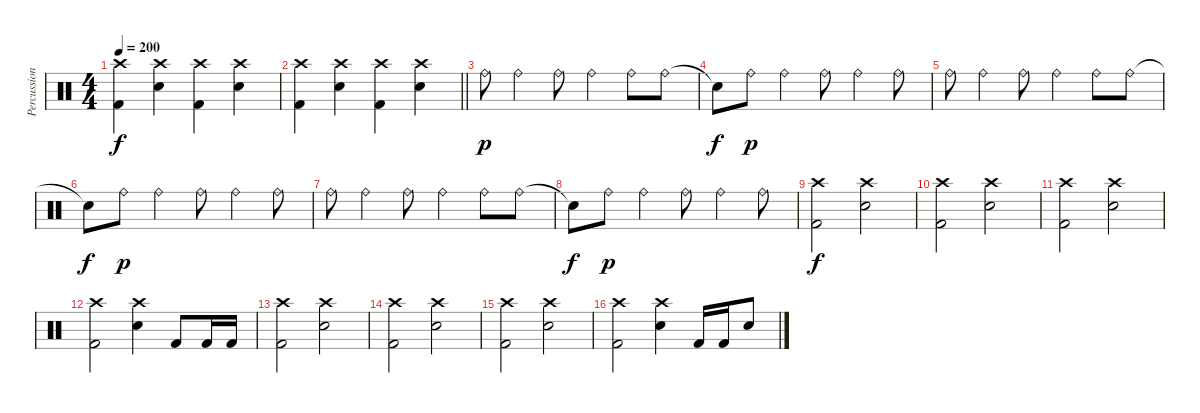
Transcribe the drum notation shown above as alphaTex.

\track ("Percussion" "Percussion") {instrument percussion}
\staff {score}
\articulation defaults
\ts (4 4)
\tempo 200
\clef neutral
\ks c
("Crash high (hit)" "Kick (hit) 2").4{dy f} ("Crash high (hit)" "Electric Snare (hit)").4 ("Crash high (hit)" "Kick (hit) 2").4 ("Crash high (hit)" "Electric Snare (hit)").4 |
\barLineRight lightlight
("Crash high (hit)" "Kick (hit) 2").4 ("Crash high (hit)" "Electric Snare (hit)").4 ("Crash high (hit)" "Kick (hit) 2").4 ("Crash high (hit)" "Electric Snare (hit)").4 |
"Ride (bell)".8{dy p} "Ride (bell)".4 "Ride (bell)".8 "Ride (bell)".4 "Ride (bell)".8 "Ride (bell)".8 |
"Snare (hit)"{t}.8{dy f} "Ride (bell)".8{dy p} "Ride (bell)".4 "Ride (bell)".8 "Ride (bell)".4 "Ride (bell)".8 |
"Ride (bell)".8 "Ride (bell)".4 "Ride (bell)".8 "Ride (bell)".4 "Ride (bell)".8 "Ride (bell)".8 |
"Snare (hit)"{t}.8{dy f} "Ride (bell)".8{dy p} "Ride (bell)".4 "Ride (bell)".8 "Ride (bell)".4 "Ride (bell)".8 |
"Ride (bell)".8 "Ride (bell)".4 "Ride (bell)".8 "Ride (bell)".4 "Ride (bell)".8 "Ride (bell)".8 |
"Snare (hit)"{t}.8{dy f} "Ride (bell)".8{dy p} "Ride (bell)".4 "Ride (bell)".8 "Ride (bell)".4 "Ride (bell)".8 |
("Crash high (hit)" "Kick (hit) 2").2{dy f} ("Crash high (hit)" "Electric Snare (hit)").2 |
("Crash high (hit)" "Kick (hit) 2").2 ("Crash high (hit)" "Electric Snare (hit)").2 |
("Crash high (hit)" "Kick (hit) 2").2 ("Crash high (hit)" "Electric Snare (hit)").2 |
("Crash high (hit)" "Kick (hit) 2").2 ("Crash high (hit)" "Electric Snare (hit)").4 "Kick (hit) 2".8 "Kick (hit) 2".16 "Kick (hit) 2".16 |
("Crash high (hit)" "Kick (hit) 2").2 ("Crash high (hit)" "Electric Snare (hit)").2 |
("Crash high (hit)" "Kick (hit) 2").2 ("Crash high (hit)" "Electric Snare (hit)").2 |
("Crash high (hit)" "Kick (hit) 2").2 ("Crash high (hit)" "Electric Snare (hit)").2 |
("Crash high (hit)" "Kick (hit) 2").2 ("Crash high (hit)" "Electric Snare (hit)").4 "Kick (hit) 2".16 "Kick (hit) 2".16 "Electric Snare (hit)".8
